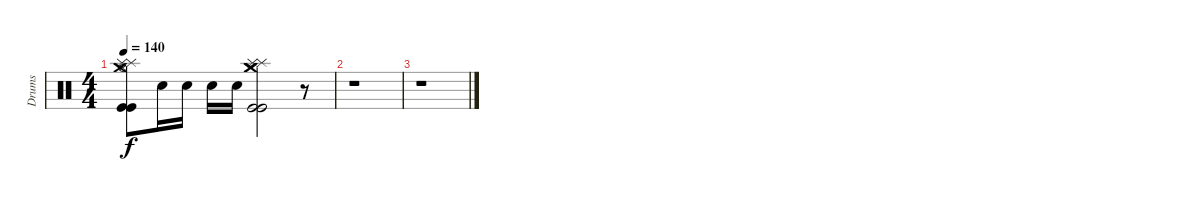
\track ("Drums" "Drums") {instrument percussion}
\staff {score}
\articulation defaults
\ts (4 4)
\tempo 140
\clef neutral
\ks c
("Hi-Hat (open)" "Kick (hit)" "Kick (hit)" "Splash (hit)" "Crash medium (hit)" "Splash (hit)").8{dy f} "Snare (hit) 2".16 "Snare (hit) 2".16 "Snare (hit) 2".16 "Snare (hit) 2".16 ("Splash (hit)" "Splash (hit)" "Crash medium (hit)" "Crash medium (hit)" "Kick (hit)" "Kick (hit)").2 r.8 |
r.1 |
r.1
